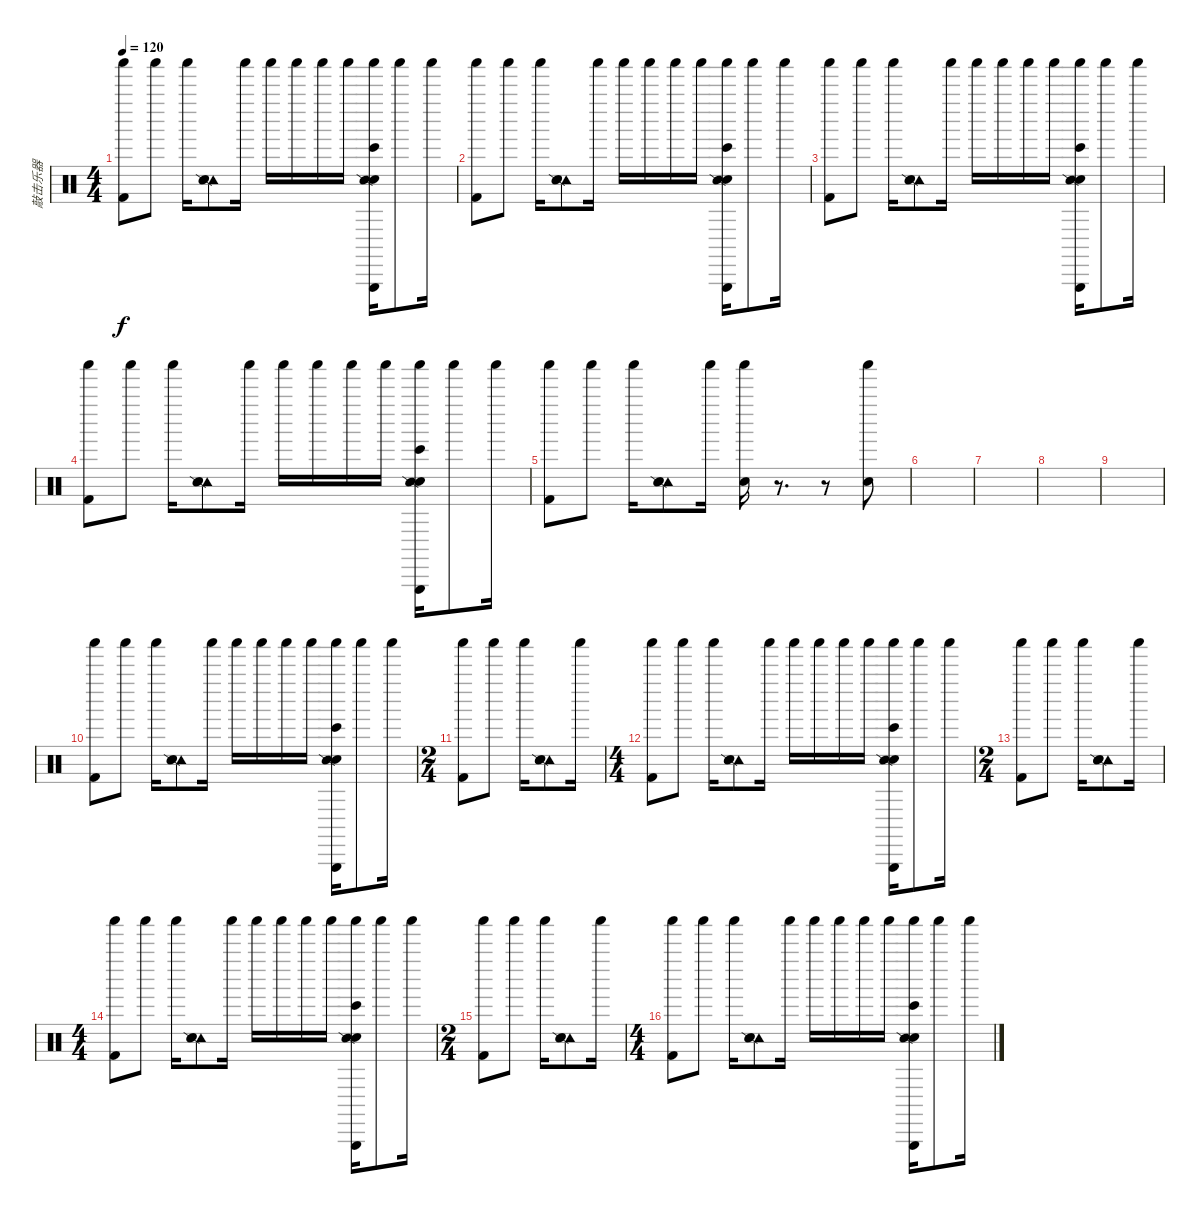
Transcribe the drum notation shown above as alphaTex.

\track ("敲击乐器" "敲击乐器") {instrument percussion}
\staff {score}
\articulation defaults
\ts (4 4)
\tempo 120
\clef neutral
\ks c
("Shaker (hit)" "Kick (hit) 2").8{dy f} "Shaker (hit)".8 "Shaker (hit)".16 ("Tambourine (hit)" "Metronome (bell)" "Snare (side stick) 2").8 "Shaker (hit)".16 "Shaker (hit)".16 "Shaker (hit)".16 "Shaker (hit)".16 "Shaker (hit)".16 ("Shaker (hit)" "Metronome (bell)" "Snare (side stick) 2" "Bongo High (hit)" "Triangle (hit)").16 "Shaker (hit)".8 "Shaker (hit)".16 |
("Shaker (hit)" "Kick (hit) 2").8 "Shaker (hit)".8 "Shaker (hit)".16 ("Tambourine (hit)" "Metronome (bell)" "Snare (side stick) 2").8 "Shaker (hit)".16 "Shaker (hit)".16 "Shaker (hit)".16 "Shaker (hit)".16 "Shaker (hit)".16 ("Shaker (hit)" "Metronome (bell)" "Snare (side stick) 2" "Bongo High (hit)" "Triangle (hit)").16 "Shaker (hit)".8 "Shaker (hit)".16 |
("Shaker (hit)" "Kick (hit) 2").8 "Shaker (hit)".8 "Shaker (hit)".16 ("Tambourine (hit)" "Metronome (bell)" "Snare (side stick) 2").8 "Shaker (hit)".16 "Shaker (hit)".16 "Shaker (hit)".16 "Shaker (hit)".16 "Shaker (hit)".16 ("Shaker (hit)" "Metronome (bell)" "Snare (side stick) 2" "Bongo High (hit)" "Triangle (hit)").16 "Shaker (hit)".8 "Shaker (hit)".16 |
("Shaker (hit)" "Kick (hit) 2").8 "Shaker (hit)".8 "Shaker (hit)".16 ("Tambourine (hit)" "Metronome (bell)" "Snare (side stick) 2").8 "Shaker (hit)".16 "Shaker (hit)".16 "Shaker (hit)".16 "Shaker (hit)".16 "Shaker (hit)".16 ("Shaker (hit)" "Metronome (bell)" "Snare (side stick) 2" "Bongo High (hit)" "Triangle (hit)").16 "Shaker (hit)".8 "Shaker (hit)".16 |
("Shaker (hit)" "Kick (hit) 2").8 "Shaker (hit)".8 "Shaker (hit)".16 ("Tambourine (hit)" "Metronome (bell)" "Snare (side stick) 2").8 "Shaker (hit)".16 ("Shaker (hit)" "Snare (hit) 2").16 r.8{d} r.8 ("Shaker (hit)" "Snare (hit) 2").8 |
|
|
|
|
("Shaker (hit)" "Kick (hit) 2").8 "Shaker (hit)".8 "Shaker (hit)".16 ("Tambourine (hit)" "Metronome (bell)" "Snare (side stick) 2").8 "Shaker (hit)".16 "Shaker (hit)".16 "Shaker (hit)".16 "Shaker (hit)".16 "Shaker (hit)".16 ("Shaker (hit)" "Metronome (bell)" "Snare (side stick) 2" "Bongo High (hit)" "Triangle (hit)").16 "Shaker (hit)".8 "Shaker (hit)".16 |
\ts (2 4)
("Shaker (hit)" "Kick (hit) 2").8 "Shaker (hit)".8 "Shaker (hit)".16 ("Tambourine (hit)" "Metronome (bell)" "Snare (side stick) 2").8 "Shaker (hit)".16 |
\ts (4 4)
("Shaker (hit)" "Kick (hit) 2").8 "Shaker (hit)".8 "Shaker (hit)".16 ("Tambourine (hit)" "Metronome (bell)" "Snare (side stick) 2").8 "Shaker (hit)".16 "Shaker (hit)".16 "Shaker (hit)".16 "Shaker (hit)".16 "Shaker (hit)".16 ("Shaker (hit)" "Metronome (bell)" "Snare (side stick) 2" "Bongo High (hit)" "Triangle (hit)").16 "Shaker (hit)".8 "Shaker (hit)".16 |
\ts (2 4)
("Shaker (hit)" "Kick (hit) 2").8 "Shaker (hit)".8 "Shaker (hit)".16 ("Tambourine (hit)" "Metronome (bell)" "Snare (side stick) 2").8 "Shaker (hit)".16 |
\ts (4 4)
("Shaker (hit)" "Kick (hit) 2").8 "Shaker (hit)".8 "Shaker (hit)".16 ("Tambourine (hit)" "Metronome (bell)" "Snare (side stick) 2").8 "Shaker (hit)".16 "Shaker (hit)".16 "Shaker (hit)".16 "Shaker (hit)".16 "Shaker (hit)".16 ("Shaker (hit)" "Metronome (bell)" "Snare (side stick) 2" "Bongo High (hit)" "Triangle (hit)").16 "Shaker (hit)".8 "Shaker (hit)".16 |
\ts (2 4)
("Shaker (hit)" "Kick (hit) 2").8 "Shaker (hit)".8 "Shaker (hit)".16 ("Tambourine (hit)" "Metronome (bell)" "Snare (side stick) 2").8 "Shaker (hit)".16 |
\ts (4 4)
("Shaker (hit)" "Kick (hit) 2").8 "Shaker (hit)".8 "Shaker (hit)".16 ("Tambourine (hit)" "Metronome (bell)" "Snare (side stick) 2").8 "Shaker (hit)".16 "Shaker (hit)".16 "Shaker (hit)".16 "Shaker (hit)".16 "Shaker (hit)".16 ("Shaker (hit)" "Metronome (bell)" "Snare (side stick) 2" "Bongo High (hit)" "Triangle (hit)").16 "Shaker (hit)".8 "Shaker (hit)".16
